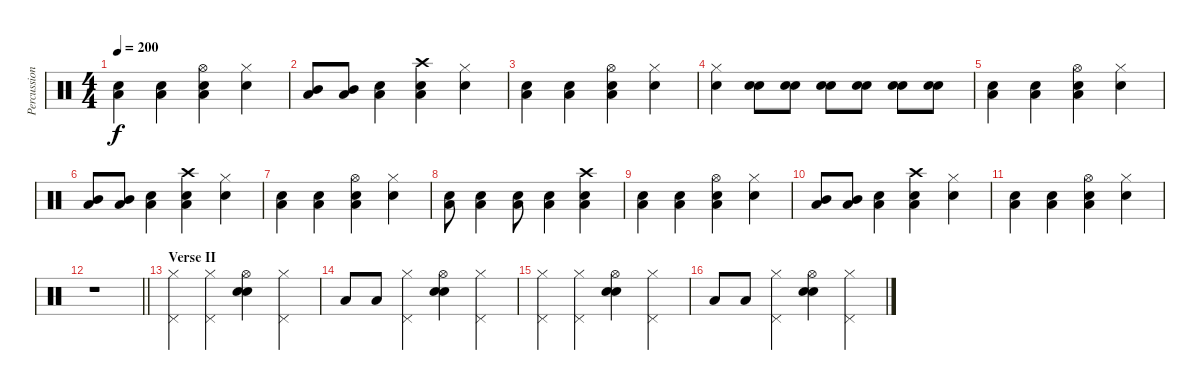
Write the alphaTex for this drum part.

\track ("Percussion" "Percussion") {instrument percussion}
\staff {score}
\articulation defaults
\ts (4 4)
\tempo 200
\clef neutral
\ks c
("Electric Snare (hit)" "Low Tom (hit)").4{dy f} ("Electric Snare (hit)" "Low Tom (hit)").4 ("Snare (hit) 2" "Low Tom (hit)" "Hi-Hat (open)").4 ("Electric Snare (hit)" "Hi-Hat (closed)").4 |
("Mid Tom (hit)" "Low Tom (hit)").8 ("Mid Tom (hit)" "Low Tom (hit)").8 ("Snare (hit) 2" "Low Tom (hit)").4 ("Electric Snare (hit)" "Low Tom (hit)" "Crash high (hit)").4 ("Electric Snare (hit)" "Hi-Hat (closed)").4 |
("Electric Snare (hit)" "Low Tom (hit)").4 ("Electric Snare (hit)" "Low Tom (hit)").4 ("Snare (hit) 2" "Low Tom (hit)" "Hi-Hat (open)").4 ("Electric Snare (hit)" "Hi-Hat (closed)").4 |
("Electric Snare (hit)" "Hi-Hat (closed)").4 ("Snare (hit) 2" "Electric Snare (hit)").8 ("Snare (hit) 2" "Electric Snare (hit)").8 ("Snare (hit) 2" "Electric Snare (hit)").8 ("Snare (hit) 2" "Electric Snare (hit)").8 ("Snare (hit) 2" "Electric Snare (hit)").8 ("Snare (hit) 2" "Electric Snare (hit)").8 |
("Electric Snare (hit)" "Low Tom (hit)").4 ("Electric Snare (hit)" "Low Tom (hit)").4 ("Snare (hit) 2" "Low Tom (hit)" "Hi-Hat (open)").4 ("Electric Snare (hit)" "Hi-Hat (closed)").4 |
("Mid Tom (hit)" "Low Tom (hit)").8 ("Mid Tom (hit)" "Low Tom (hit)").8 ("Snare (hit) 2" "Low Tom (hit)").4 ("Electric Snare (hit)" "Low Tom (hit)" "Crash high (hit)").4 ("Electric Snare (hit)" "Hi-Hat (closed)").4 |
("Electric Snare (hit)" "Low Tom (hit)").4 ("Electric Snare (hit)" "Low Tom (hit)").4 ("Snare (hit) 2" "Low Tom (hit)" "Hi-Hat (open)").4 ("Electric Snare (hit)" "Hi-Hat (closed)").4 |
("Snare (hit) 2" "Low Tom (hit)").8 ("Snare (hit) 2" "Low Tom (hit)").4 ("Snare (hit) 2" "Low Tom (hit)").8 ("Snare (hit) 2" "Low Tom (hit)").4 ("Electric Snare (hit)" "Low Tom (hit)" "Crash high (hit)").4 |
("Electric Snare (hit)" "Low Tom (hit)").4 ("Electric Snare (hit)" "Low Tom (hit)").4 ("Snare (hit) 2" "Low Tom (hit)" "Hi-Hat (open)").4 ("Electric Snare (hit)" "Hi-Hat (closed)").4 |
("Mid Tom (hit)" "Low Tom (hit)").8 ("Mid Tom (hit)" "Low Tom (hit)").8 ("Snare (hit) 2" "Low Tom (hit)").4 ("Electric Snare (hit)" "Low Tom (hit)" "Crash high (hit)").4 ("Electric Snare (hit)" "Hi-Hat (closed)").4 |
("Electric Snare (hit)" "Low Tom (hit)").4 ("Electric Snare (hit)" "Low Tom (hit)").4 ("Snare (hit) 2" "Low Tom (hit)" "Hi-Hat (open)").4 ("Electric Snare (hit)" "Hi-Hat (closed)").4 |
\barLineRight lightlight
r.1 |
\section ("" "Verse II")
("Hi-Hat (closed)" "Pedal Hi-Hat (hit)").4 ("Hi-Hat (closed)" "Pedal Hi-Hat (hit)").4 ("Snare (hit) 2" "Electric Snare (hit)" "Hi-Hat (open)").4 ("Hi-Hat (closed)" "Pedal Hi-Hat (hit)").4 |
"Low Tom (hit)".8 "Low Tom (hit)".8 ("Hi-Hat (closed)" "Pedal Hi-Hat (hit)").4 ("Snare (hit) 2" "Electric Snare (hit)" "Hi-Hat (open)").4 ("Hi-Hat (closed)" "Pedal Hi-Hat (hit)").4 |
("Hi-Hat (closed)" "Pedal Hi-Hat (hit)").4 ("Hi-Hat (closed)" "Pedal Hi-Hat (hit)").4 ("Snare (hit) 2" "Electric Snare (hit)" "Hi-Hat (open)").4 ("Hi-Hat (closed)" "Pedal Hi-Hat (hit)").4 |
"Low Tom (hit)".8 "Low Tom (hit)".8 ("Hi-Hat (closed)" "Pedal Hi-Hat (hit)").4 ("Snare (hit) 2" "Electric Snare (hit)" "Hi-Hat (open)").4 ("Hi-Hat (closed)" "Pedal Hi-Hat (hit)").4
